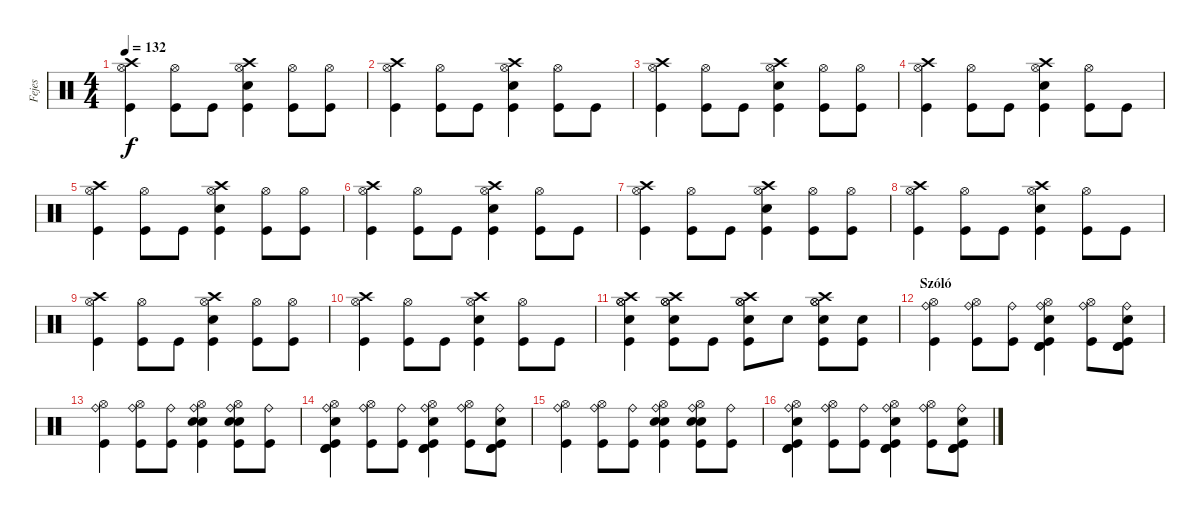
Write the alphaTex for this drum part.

\track ("Fejes" "Fejes") {instrument percussion}
\staff {score}
\articulation defaults
\ts (4 4)
\tempo 132
\clef neutral
\ks c
("Crash high (hit)" "Hi-Hat (open)" "Kick (hit)").4{dy f} ("Hi-Hat (open)" "Kick (hit)").8 "Kick (hit)".8 ("Crash high (hit)" "Hi-Hat (open)" "Snare (hit) 2" "Kick (hit)").4 ("Hi-Hat (open)" "Kick (hit)").8 ("Hi-Hat (open)" "Kick (hit)").8 |
("Crash high (hit)" "Hi-Hat (open)" "Kick (hit)").4 ("Hi-Hat (open)" "Kick (hit)").8 "Kick (hit)".8 ("Crash high (hit)" "Hi-Hat (open)" "Snare (hit) 2" "Kick (hit)").4 ("Hi-Hat (open)" "Kick (hit)").8 "Kick (hit)".8 |
("Crash high (hit)" "Hi-Hat (open)" "Kick (hit)").4 ("Hi-Hat (open)" "Kick (hit)").8 "Kick (hit)".8 ("Crash high (hit)" "Hi-Hat (open)" "Snare (hit) 2" "Kick (hit)").4 ("Hi-Hat (open)" "Kick (hit)").8 ("Hi-Hat (open)" "Kick (hit)").8 |
("Crash high (hit)" "Hi-Hat (open)" "Kick (hit)").4 ("Hi-Hat (open)" "Kick (hit)").8 "Kick (hit)".8 ("Crash high (hit)" "Hi-Hat (open)" "Snare (hit) 2" "Kick (hit)").4 ("Hi-Hat (open)" "Kick (hit)").8 "Kick (hit)".8 |
("Crash high (hit)" "Hi-Hat (open)" "Kick (hit)").4 ("Hi-Hat (open)" "Kick (hit)").8 "Kick (hit)".8 ("Crash high (hit)" "Hi-Hat (open)" "Snare (hit) 2" "Kick (hit)").4 ("Hi-Hat (open)" "Kick (hit)").8 ("Hi-Hat (open)" "Kick (hit)").8 |
("Crash high (hit)" "Hi-Hat (open)" "Kick (hit)").4 ("Hi-Hat (open)" "Kick (hit)").8 "Kick (hit)".8 ("Crash high (hit)" "Hi-Hat (open)" "Snare (hit) 2" "Kick (hit)").4 ("Hi-Hat (open)" "Kick (hit)").8 "Kick (hit)".8 |
("Crash high (hit)" "Hi-Hat (open)" "Kick (hit)").4 ("Hi-Hat (open)" "Kick (hit)").8 "Kick (hit)".8 ("Crash high (hit)" "Hi-Hat (open)" "Snare (hit) 2" "Kick (hit)").4 ("Hi-Hat (open)" "Kick (hit)").8 ("Hi-Hat (open)" "Kick (hit)").8 |
("Crash high (hit)" "Hi-Hat (open)" "Kick (hit)").4 ("Hi-Hat (open)" "Kick (hit)").8 "Kick (hit)".8 ("Crash high (hit)" "Hi-Hat (open)" "Snare (hit) 2" "Kick (hit)").4 ("Hi-Hat (open)" "Kick (hit)").8 "Kick (hit)".8 |
("Crash high (hit)" "Hi-Hat (open)" "Kick (hit)").4 ("Hi-Hat (open)" "Kick (hit)").8 "Kick (hit)".8 ("Crash high (hit)" "Hi-Hat (open)" "Snare (hit) 2" "Kick (hit)").4 ("Hi-Hat (open)" "Kick (hit)").8 ("Hi-Hat (open)" "Kick (hit)").8 |
("Crash high (hit)" "Hi-Hat (open)" "Kick (hit)").4 ("Hi-Hat (open)" "Kick (hit)").8 "Kick (hit)".8 ("Crash high (hit)" "Hi-Hat (open)" "Snare (hit) 2" "Kick (hit)").4 ("Hi-Hat (open)" "Kick (hit)").8 "Kick (hit)".8 |
("Hi-Hat (open)" "Hi-Hat (open)" "Snare (hit) 2" "Crash high (hit)" "Kick (hit)").4 ("Hi-Hat (open)" "Hi-Hat (open)" "Snare (hit) 2" "Crash high (hit)" "Kick (hit)").8 "Kick (hit)".8 ("Hi-Hat (open)" "Hi-Hat (open)" "Snare (hit) 2" "Crash high (hit)" "Kick (hit)").8 "Snare (hit) 2".8 ("Hi-Hat (open)" "Hi-Hat (open)" "Snare (hit) 2" "Crash high (hit)" "Kick (hit)").8 ("Snare (hit) 2" "Kick (hit)").8 |
\section ("" "Szóló")
("Ride (bell)" "Hi-Hat (open)" "Kick (hit)").4 ("Ride (bell)" "Hi-Hat (open)" "Kick (hit)").8 ("Ride (bell)" "Kick (hit)").8 ("Ride (bell)" "Hi-Hat (open)" "Snare (hit) 2" "Timbale high (hit)" "Timbale high (hit)" "Kick (hit)").4 ("Ride (bell)" "Hi-Hat (open)" "Kick (hit)").8 ("Ride (bell)" "Snare (hit) 2" "Timbale high (hit)" "Timbale high (hit)" "Kick (hit)").8 |
("Ride (bell)" "Hi-Hat (open)" "Kick (hit)").4 ("Ride (bell)" "Hi-Hat (open)" "Kick (hit)").8 ("Ride (bell)" "Kick (hit)").8 ("Ride (bell)" "Hi-Hat (open)" "Snare (hit) 2" "Snare (hit) 2" "Kick (hit)").4 ("Ride (bell)" "Hi-Hat (open)" "Snare (hit) 2" "Snare (hit) 2" "Kick (hit)").8 ("Ride (bell)" "Kick (hit)").8 |
("Ride (bell)" "Hi-Hat (open)" "Snare (hit) 2" "Timbale high (hit)" "Timbale high (hit)" "Kick (hit)").4 ("Ride (bell)" "Hi-Hat (open)" "Kick (hit)").8 ("Ride (bell)" "Kick (hit)").8 ("Ride (bell)" "Hi-Hat (open)" "Snare (hit) 2" "Timbale high (hit)" "Timbale high (hit)" "Kick (hit)").4 ("Ride (bell)" "Hi-Hat (open)" "Kick (hit)").8 ("Ride (bell)" "Snare (hit) 2" "Timbale high (hit)" "Timbale high (hit)" "Kick (hit)").8 |
("Ride (bell)" "Hi-Hat (open)" "Kick (hit)").4 ("Ride (bell)" "Hi-Hat (open)" "Kick (hit)").8 ("Ride (bell)" "Kick (hit)").8 ("Ride (bell)" "Hi-Hat (open)" "Snare (hit) 2" "Snare (hit) 2" "Kick (hit)").4 ("Ride (bell)" "Hi-Hat (open)" "Snare (hit) 2" "Snare (hit) 2" "Kick (hit)").8 ("Ride (bell)" "Kick (hit)").8 |
("Ride (bell)" "Hi-Hat (open)" "Snare (hit) 2" "Timbale high (hit)" "Timbale high (hit)" "Kick (hit)").4 ("Ride (bell)" "Hi-Hat (open)" "Kick (hit)").8 ("Ride (bell)" "Kick (hit)").8 ("Ride (bell)" "Hi-Hat (open)" "Snare (hit) 2" "Timbale high (hit)" "Timbale high (hit)" "Kick (hit)").4 ("Ride (bell)" "Hi-Hat (open)" "Kick (hit)").8 ("Ride (bell)" "Snare (hit) 2" "Timbale high (hit)" "Timbale high (hit)" "Kick (hit)").8
